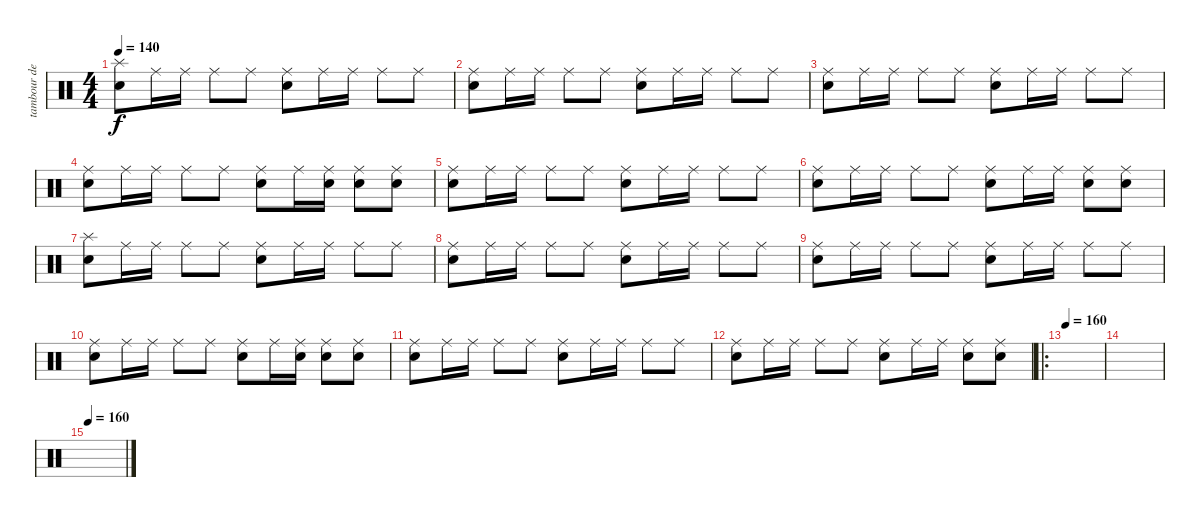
\track ("tambour de guerre" "tambour de") {instrument percussion}
\staff {score}
\articulation defaults
\ts (4 4)
\tempo 140
\clef neutral
\ks c
("Snare (hit) 2" "Splash (hit)").8{dy f} "Ride (middle)".16 "Ride (middle)".16 "Ride (middle)".8 "Ride (middle)".8 ("Snare (hit) 2" "Ride (middle)").8 "Ride (middle)".16 "Ride (middle)".16 "Ride (middle)".8 "Ride (middle)".8 |
("Snare (hit) 2" "Ride (middle)").8 "Ride (middle)".16 "Ride (middle)".16 "Ride (middle)".8 "Ride (middle)".8 ("Snare (hit) 2" "Ride (middle)").8 "Ride (middle)".16 "Ride (middle)".16 "Ride (middle)".8 "Ride (middle)".8 |
("Snare (hit) 2" "Ride (middle)").8 "Ride (middle)".16 "Ride (middle)".16 "Ride (middle)".8 "Ride (middle)".8 ("Snare (hit) 2" "Ride (middle)").8 "Ride (middle)".16 "Ride (middle)".16 "Ride (middle)".8 "Ride (middle)".8 |
("Snare (hit) 2" "Ride (middle)").8 "Ride (middle)".16 "Ride (middle)".16 "Ride (middle)".8 "Ride (middle)".8 ("Snare (hit) 2" "Ride (middle)").8 "Ride (middle)".16 ("Snare (hit) 2" "Ride (middle)").16 ("Snare (hit) 2" "Ride (middle)").8 ("Snare (hit) 2" "Ride (middle)").8 |
("Snare (hit) 2" "Ride (middle)").8 "Ride (middle)".16 "Ride (middle)".16 "Ride (middle)".8 "Ride (middle)".8 ("Snare (hit) 2" "Ride (middle)").8 "Ride (middle)".16 "Ride (middle)".16 "Ride (middle)".8 "Ride (middle)".8 |
("Snare (hit) 2" "Ride (middle)").8 "Ride (middle)".16 "Ride (middle)".16 "Ride (middle)".8 "Ride (middle)".8 ("Snare (hit) 2" "Ride (middle)").8 "Ride (middle)".16 "Ride (middle)".16 ("Snare (hit) 2" "Ride (middle)").8 ("Snare (hit) 2" "Ride (middle)").8 |
("Snare (hit) 2" "Splash (hit)").8 "Ride (middle)".16 "Ride (middle)".16 "Ride (middle)".8 "Ride (middle)".8 ("Snare (hit) 2" "Ride (middle)").8 "Ride (middle)".16 "Ride (middle)".16 "Ride (middle)".8 "Ride (middle)".8 |
("Snare (hit) 2" "Ride (middle)").8 "Ride (middle)".16 "Ride (middle)".16 "Ride (middle)".8 "Ride (middle)".8 ("Snare (hit) 2" "Ride (middle)").8 "Ride (middle)".16 "Ride (middle)".16 "Ride (middle)".8 "Ride (middle)".8 |
("Snare (hit) 2" "Ride (middle)").8 "Ride (middle)".16 "Ride (middle)".16 "Ride (middle)".8 "Ride (middle)".8 ("Snare (hit) 2" "Ride (middle)").8 "Ride (middle)".16 "Ride (middle)".16 "Ride (middle)".8 "Ride (middle)".8 |
("Snare (hit) 2" "Ride (middle)").8 "Ride (middle)".16 "Ride (middle)".16 "Ride (middle)".8 "Ride (middle)".8 ("Snare (hit) 2" "Ride (middle)").8 "Ride (middle)".16 ("Snare (hit) 2" "Ride (middle)").16 ("Snare (hit) 2" "Ride (middle)").8 ("Snare (hit) 2" "Ride (middle)").8 |
("Snare (hit) 2" "Ride (middle)").8 "Ride (middle)".16 "Ride (middle)".16 "Ride (middle)".8 "Ride (middle)".8 ("Snare (hit) 2" "Ride (middle)").8 "Ride (middle)".16 "Ride (middle)".16 "Ride (middle)".8 "Ride (middle)".8 |
("Snare (hit) 2" "Ride (middle)").8 "Ride (middle)".16 "Ride (middle)".16 "Ride (middle)".8 "Ride (middle)".8 ("Snare (hit) 2" "Ride (middle)").8 "Ride (middle)".16 "Ride (middle)".16 ("Snare (hit) 2" "Ride (middle)").8 ("Snare (hit) 2" "Ride (middle)").8 |
\ro
\tempo 160
|
|
\tempo 160
